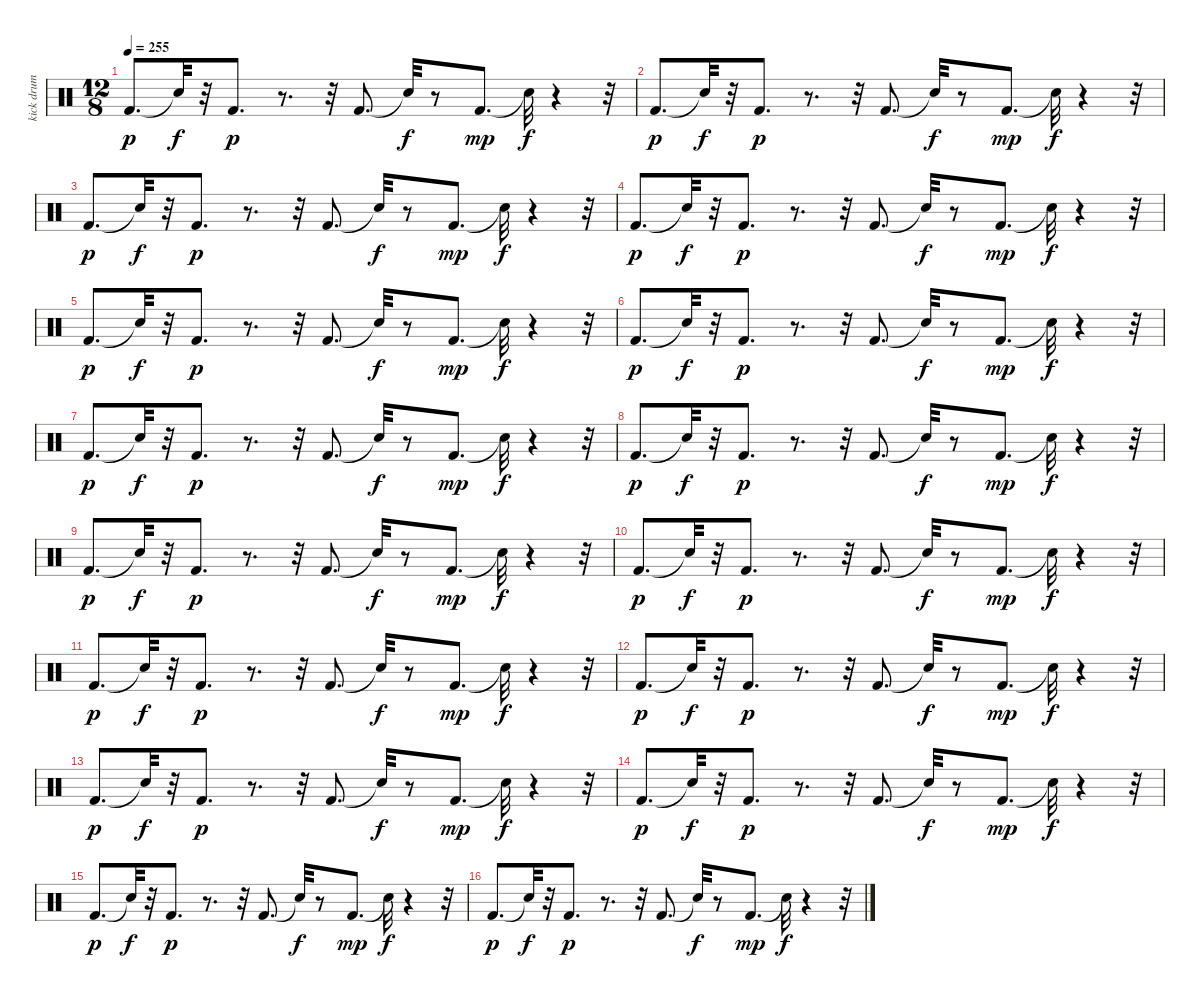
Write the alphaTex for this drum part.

\track ("kick drum           " "kick drum ") {instrument percussion}
\staff {score}
\articulation defaults
\ts (12 8)
\tempo 255
\clef neutral
\ks c "Kick (hit) 2".8{d dy p} "Snare (hit)"{t}.32{dy f}
r.32 "Kick (hit) 2".8{d dy p} r.8{d} r.32 "Kick (hit) 2".8{d} "Snare (hit)"{t}.32{dy f} r.8 "Kick (hit) 2".8{d dy mp} "Snare (hit)"{t}.32{dy f} r.4 r.32 |
"Kick (hit) 2".8{d dy p} "Snare (hit)"{t}.32{dy f} r.32 "Kick (hit) 2".8{d dy p} r.8{d} r.32 "Kick (hit) 2".8{d} "Snare (hit)"{t}.32{dy f} r.8 "Kick (hit) 2".8{d dy mp} "Snare (hit)"{t}.32{dy f} r.4 r.32 |
"Kick (hit) 2".8{d dy p} "Snare (hit)"{t}.32{dy f} r.32 "Kick (hit) 2".8{d dy p} r.8{d} r.32 "Kick (hit) 2".8{d} "Snare (hit)"{t}.32{dy f} r.8 "Kick (hit) 2".8{d dy mp} "Snare (hit)"{t}.32{dy f} r.4 r.32 |
"Kick (hit) 2".8{d dy p} "Snare (hit)"{t}.32{dy f} r.32 "Kick (hit) 2".8{d dy p} r.8{d} r.32 "Kick (hit) 2".8{d} "Snare (hit)"{t}.32{dy f} r.8 "Kick (hit) 2".8{d dy mp} "Snare (hit)"{t}.32{dy f} r.4 r.32 |
"Kick (hit) 2".8{d dy p} "Snare (hit)"{t}.32{dy f} r.32 "Kick (hit) 2".8{d dy p} r.8{d} r.32 "Kick (hit) 2".8{d} "Snare (hit)"{t}.32{dy f} r.8 "Kick (hit) 2".8{d dy mp} "Snare (hit)"{t}.32{dy f} r.4 r.32 |
"Kick (hit) 2".8{d dy p} "Snare (hit)"{t}.32{dy f} r.32 "Kick (hit) 2".8{d dy p} r.8{d} r.32 "Kick (hit) 2".8{d} "Snare (hit)"{t}.32{dy f} r.8 "Kick (hit) 2".8{d dy mp} "Snare (hit)"{t}.32{dy f} r.4 r.32 |
"Kick (hit) 2".8{d dy p} "Snare (hit)"{t}.32{dy f} r.32 "Kick (hit) 2".8{d dy p} r.8{d} r.32 "Kick (hit) 2".8{d} "Snare (hit)"{t}.32{dy f} r.8 "Kick (hit) 2".8{d dy mp} "Snare (hit)"{t}.32{dy f} r.4 r.32 |
"Kick (hit) 2".8{d dy p} "Snare (hit)"{t}.32{dy f} r.32 "Kick (hit) 2".8{d dy p} r.8{d} r.32 "Kick (hit) 2".8{d} "Snare (hit)"{t}.32{dy f} r.8 "Kick (hit) 2".8{d dy mp} "Snare (hit)"{t}.32{dy f} r.4 r.32 |
"Kick (hit) 2".8{d dy p} "Snare (hit)"{t}.32{dy f} r.32 "Kick (hit) 2".8{d dy p} r.8{d} r.32 "Kick (hit) 2".8{d} "Snare (hit)"{t}.32{dy f} r.8 "Kick (hit) 2".8{d dy mp} "Snare (hit)"{t}.32{dy f} r.4 r.32 |
"Kick (hit) 2".8{d dy p} "Snare (hit)"{t}.32{dy f} r.32 "Kick (hit) 2".8{d dy p} r.8{d} r.32 "Kick (hit) 2".8{d} "Snare (hit)"{t}.32{dy f} r.8 "Kick (hit) 2".8{d dy mp} "Snare (hit)"{t}.32{dy f} r.4 r.32 |
"Kick (hit) 2".8{d dy p} "Snare (hit)"{t}.32{dy f} r.32 "Kick (hit) 2".8{d dy p} r.8{d} r.32 "Kick (hit) 2".8{d} "Snare (hit)"{t}.32{dy f} r.8 "Kick (hit) 2".8{d dy mp} "Snare (hit)"{t}.32{dy f} r.4 r.32 |
"Kick (hit) 2".8{d dy p} "Snare (hit)"{t}.32{dy f} r.32 "Kick (hit) 2".8{d dy p} r.8{d} r.32 "Kick (hit) 2".8{d} "Snare (hit)"{t}.32{dy f} r.8 "Kick (hit) 2".8{d dy mp} "Snare (hit)"{t}.32{dy f} r.4 r.32 |
"Kick (hit) 2".8{d dy p} "Snare (hit)"{t}.32{dy f} r.32 "Kick (hit) 2".8{d dy p} r.8{d} r.32 "Kick (hit) 2".8{d} "Snare (hit)"{t}.32{dy f} r.8 "Kick (hit) 2".8{d dy mp} "Snare (hit)"{t}.32{dy f} r.4 r.32 |
"Kick (hit) 2".8{d dy p} "Snare (hit)"{t}.32{dy f} r.32 "Kick (hit) 2".8{d dy p} r.8{d} r.32 "Kick (hit) 2".8{d} "Snare (hit)"{t}.32{dy f} r.8 "Kick (hit) 2".8{d dy mp} "Snare (hit)"{t}.32{dy f} r.4 r.32 |
"Kick (hit) 2".8{d dy p} "Snare (hit)"{t}.32{dy f} r.32 "Kick (hit) 2".8{d dy p} r.8{d} r.32 "Kick (hit) 2".8{d} "Snare (hit)"{t}.32{dy f} r.8 "Kick (hit) 2".8{d dy mp} "Snare (hit)"{t}.32{dy f} r.4 r.32 |
"Kick (hit) 2".8{d dy p} "Snare (hit)"{t}.32{dy f} r.32 "Kick (hit) 2".8{d dy p} r.8{d} r.32 "Kick (hit) 2".8{d} "Snare (hit)"{t}.32{dy f} r.8 "Kick (hit) 2".8{d dy mp} "Snare (hit)"{t}.32{dy f} r.4 r.32
